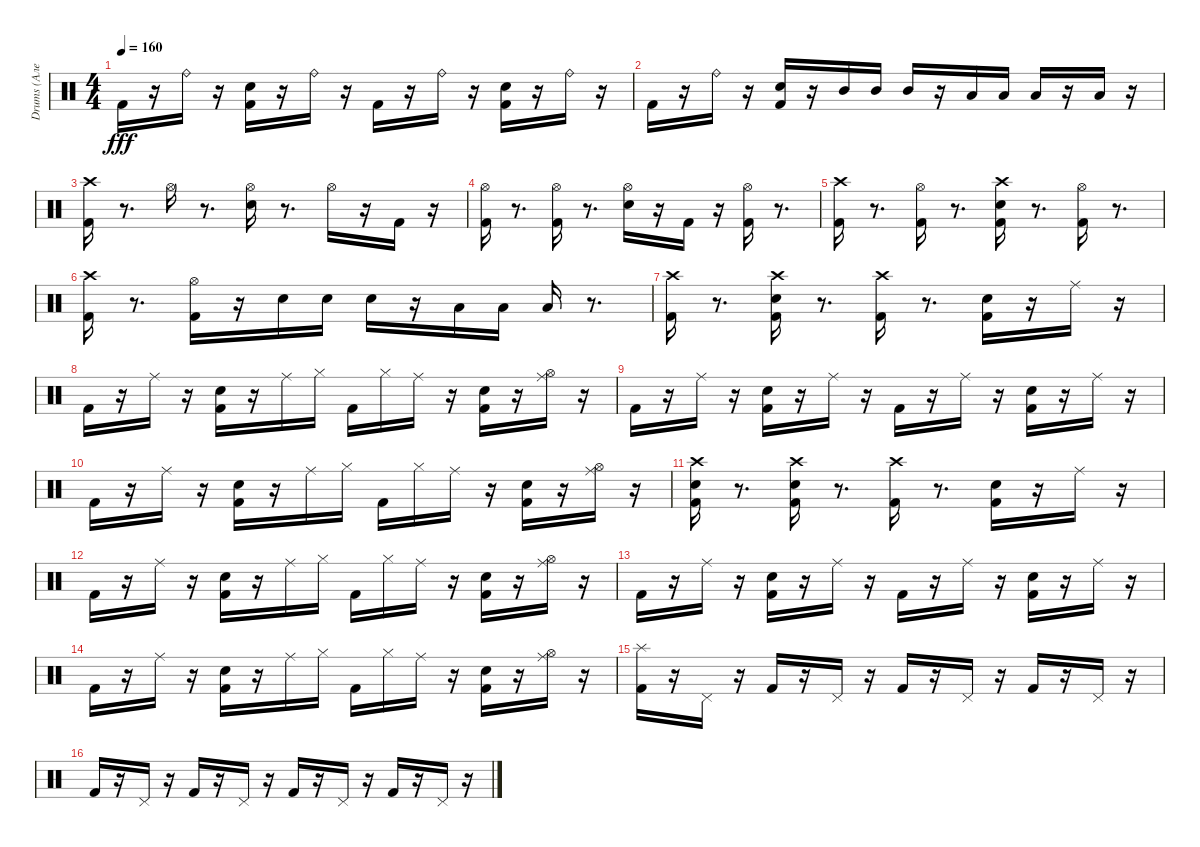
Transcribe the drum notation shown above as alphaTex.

\track ("Drums (Алексей Барзилович)" "Drums (Але") {instrument percussion}
\staff {score}
\articulation defaults
\ts (4 4)
\tempo 160
\clef neutral
\ks c "Kick (hit) 2".16{dy fff}
r.16 "Ride (bell)".16 r.16 ("Electric Snare (hit)" "Kick (hit) 2").16 r.16 "Ride (bell)".16 r.16 "Kick (hit) 2".16 r.16 "Ride (bell)".16 r.16 ("Electric Snare (hit)" "Kick (hit) 2").16 r.16 "Ride (bell)".16 r.16 |
"Kick (hit) 2".16 r.16 "Ride (bell)".16 r.16 ("Electric Snare (hit)" "Kick (hit) 2").16 r.16 "Mid Tom (hit)".16 "Mid Tom (hit)".16 "Mid Tom (hit)".16 r.16 "Low Tom (hit)".16 "Low Tom (hit)".16 "Low Tom (hit)".16 r.16 "Low Tom (hit)".16 r.16 |
("Crash high (hit)" "Kick (hit) 2").16 r.8{d} "Hi-Hat (open)".16 r.8{d} ("Hi-Hat (open)" "Electric Snare (hit)").16 r.8{d} "Hi-Hat (open)".16 r.16 "Kick (hit) 2".16 r.16 |
("Kick (hit) 2" "Hi-Hat (open)").16 r.8{d} ("Hi-Hat (open)" "Kick (hit) 2").16 r.8{d} ("Hi-Hat (open)" "Electric Snare (hit)").16 r.16 "Kick (hit) 2".16 r.16 ("Kick (hit) 2" "Hi-Hat (open)").16 r.8{d} |
("Kick (hit) 2" "Crash high (hit)").16 r.8{d} ("Kick (hit) 2" "Hi-Hat (open)").16 r.8{d} ("Electric Snare (hit)" "Kick (hit) 2" "Crash high (hit)").16 r.8{d} ("Kick (hit) 2" "Hi-Hat (open)").16 r.8{d} |
("Kick (hit) 2" "Crash high (hit)").16 r.8{d} ("Kick (hit) 2" "Hi-Hat (open)").16 r.16 "Electric Snare (hit)".16 "Electric Snare (hit)".16 "Electric Snare (hit)".16 r.16 "Low Tom (hit)".16 "Low Tom (hit)".16 "Low Tom (hit)".16 r.8{d} |
("Crash high (hit)" "Kick (hit) 2").16 r.8{d} ("Crash high (hit)" "Electric Snare (hit)" "Kick (hit) 2").16 r.8{d} ("Crash high (hit)" "Kick (hit) 2").16 r.8{d} ("Electric Snare (hit)" "Kick (hit) 2").16 r.16 "Ride (middle)".16 r.16 |
"Kick (hit) 2".16 r.16 "Ride (middle)".16 r.16 ("Electric Snare (hit)" "Kick (hit) 2").16 r.16 "Ride (middle)".16 "Hi-Hat (closed)".16 "Kick (hit) 2".16 "Hi-Hat (closed)".16 "Ride (middle)".16 r.16 ("Electric Snare (hit)" "Kick (hit) 2").16 r.16 ("Ride (middle)" "Hi-Hat (open)").16 r.16 |
"Kick (hit) 2".16 r.16 "Ride (middle)".16 r.16 ("Electric Snare (hit)" "Kick (hit) 2").16 r.16 "Ride (middle)".16 r.16 "Kick (hit) 2".16 r.16 "Ride (middle)".16 r.16 ("Electric Snare (hit)" "Kick (hit) 2").16 r.16 "Ride (middle)".16 r.16 |
"Kick (hit) 2".16 r.16 "Ride (middle)".16 r.16 ("Electric Snare (hit)" "Kick (hit) 2").16 r.16 "Ride (middle)".16 "Hi-Hat (closed)".16 "Kick (hit) 2".16 "Hi-Hat (closed)".16 "Ride (middle)".16 r.16 ("Electric Snare (hit)" "Kick (hit) 2").16 r.16 ("Hi-Hat (open)" "Ride (middle)").16 r.16 |
("Electric Snare (hit)" "Kick (hit) 2" "Crash high (hit)").16 r.8{d} ("Crash high (hit)" "Electric Snare (hit)" "Kick (hit) 2").16 r.8{d} ("Crash high (hit)" "Kick (hit) 2").16 r.8{d} ("Kick (hit) 2" "Electric Snare (hit)").16 r.16 "Ride (middle)".16 r.16 |
"Kick (hit) 2".16 r.16 "Ride (middle)".16 r.16 ("Electric Snare (hit)" "Kick (hit) 2").16 r.16 "Ride (middle)".16 "Hi-Hat (closed)".16 "Kick (hit) 2".16 "Hi-Hat (closed)".16 "Ride (middle)".16 r.16 ("Electric Snare (hit)" "Kick (hit) 2").16 r.16 ("Hi-Hat (open)" "Ride (middle)").16 r.16 |
"Kick (hit) 2".16 r.16 "Ride (middle)".16 r.16 ("Kick (hit) 2" "Electric Snare (hit)").16 r.16 "Ride (middle)".16 r.16 "Kick (hit) 2".16 r.16 "Ride (middle)".16 r.16 ("Electric Snare (hit)" "Kick (hit) 2").16 r.16 "Ride (middle)".16 r.16 |
"Kick (hit) 2".16 r.16 "Ride (middle)".16 r.16 ("Kick (hit) 2" "Electric Snare (hit)").16 r.16 "Ride (middle)".16 "Hi-Hat (closed)".16 "Kick (hit) 2".16 "Hi-Hat (closed)".16 "Ride (middle)".16 r.16 ("Kick (hit) 2" "Electric Snare (hit)").16 r.16 ("Hi-Hat (open)" "Ride (middle)").16 r.16 |
("Splash (hit)" "Kick (hit) 2").16 r.16 "Pedal Hi-Hat (hit)".16 r.16 "Kick (hit) 2".16 r.16 "Pedal Hi-Hat (hit)".16 r.16 "Kick (hit) 2".16 r.16 "Pedal Hi-Hat (hit)".16 r.16 "Kick (hit) 2".16 r.16 "Pedal Hi-Hat (hit)".16 r.16 |
"Kick (hit) 2".16 r.16 "Pedal Hi-Hat (hit)".16 r.16 "Kick (hit) 2".16 r.16 "Pedal Hi-Hat (hit)".16 r.16 "Kick (hit) 2".16 r.16 "Pedal Hi-Hat (hit)".16 r.16 "Kick (hit) 2".16 r.16 "Pedal Hi-Hat (hit)".16 r.16
